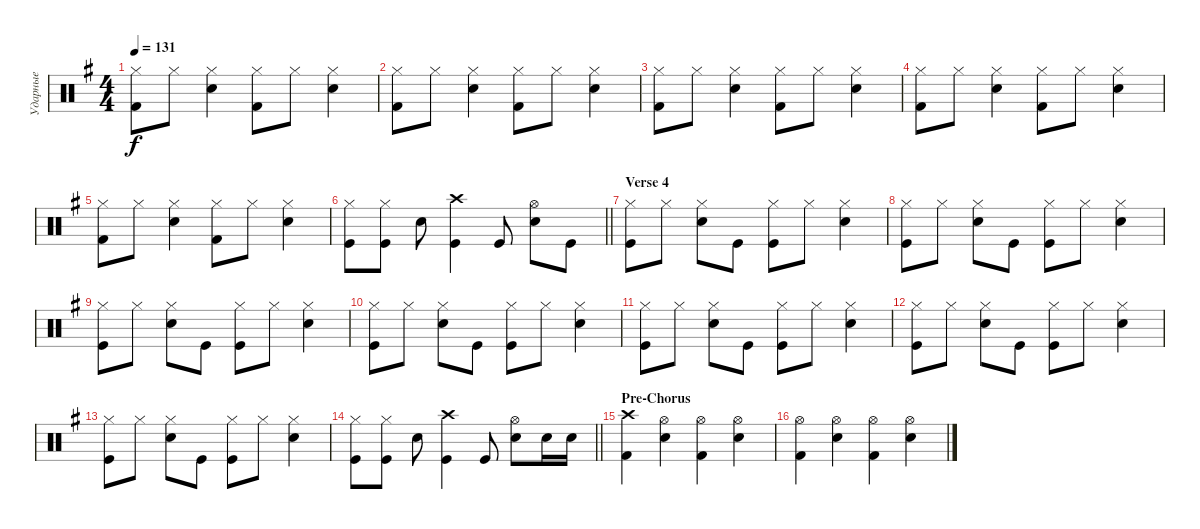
\track ("Ударные" "Ударные") {instrument percussion}
\staff {score}
\articulation defaults
\ts (4 4)
\tempo 131
\clef neutral
\ks eminor
("Hi-Hat (closed)" "Kick (hit) 2").8{dy f} "Hi-Hat (closed)".8 ("Snare (hit) 2" "Hi-Hat (closed)").4 ("Hi-Hat (closed)" "Kick (hit) 2").8 "Hi-Hat (closed)".8 ("Snare (hit) 2" "Hi-Hat (closed)").4 |
("Hi-Hat (closed)" "Kick (hit) 2").8 "Hi-Hat (closed)".8 ("Hi-Hat (closed)" "Snare (hit) 2").4 ("Hi-Hat (closed)" "Kick (hit) 2").8 "Hi-Hat (closed)".8 ("Hi-Hat (closed)" "Snare (hit) 2").4 |
("Hi-Hat (closed)" "Kick (hit) 2").8 "Hi-Hat (closed)".8 ("Hi-Hat (closed)" "Snare (hit) 2").4 ("Hi-Hat (closed)" "Kick (hit) 2").8 "Hi-Hat (closed)".8 ("Snare (hit) 2" "Hi-Hat (closed)").4 |
("Hi-Hat (closed)" "Kick (hit) 2").8 "Hi-Hat (closed)".8 ("Hi-Hat (closed)" "Snare (hit) 2").4 ("Hi-Hat (closed)" "Kick (hit) 2").8 "Hi-Hat (closed)".8 ("Hi-Hat (closed)" "Snare (hit) 2").4 |
("Hi-Hat (closed)" "Kick (hit) 2").8 "Hi-Hat (closed)".8 ("Hi-Hat (closed)" "Snare (hit) 2").4 ("Hi-Hat (closed)" "Kick (hit) 2").8 "Hi-Hat (closed)".8 ("Hi-Hat (closed)" "Snare (hit) 2").4 |
\barLineRight lightlight
("Kick (hit)" "Hi-Hat (closed)").8 ("Kick (hit)" "Hi-Hat (closed)").8 "Snare (hit) 2".8 ("Crash high (hit)" "Kick (hit)").4 "Kick (hit)".8 ("Snare (hit) 2" "Hi-Hat (open)").8 "Kick (hit)".8 |
\section ("" "Verse 4")
("Hi-Hat (closed)" "Kick (hit)").8 "Hi-Hat (closed)".8 ("Hi-Hat (closed)" "Snare (hit) 2").8 "Kick (hit)".8 ("Hi-Hat (closed)" "Kick (hit)").8 "Hi-Hat (closed)".8 ("Hi-Hat (closed)" "Snare (hit) 2").4 |
("Hi-Hat (closed)" "Kick (hit)").8 "Hi-Hat (closed)".8 ("Hi-Hat (closed)" "Snare (hit) 2").8 "Kick (hit)".8 ("Hi-Hat (closed)" "Kick (hit)").8 "Hi-Hat (closed)".8 ("Snare (hit) 2" "Hi-Hat (closed)").4 |
("Hi-Hat (closed)" "Kick (hit)").8 "Hi-Hat (closed)".8 ("Hi-Hat (closed)" "Snare (hit) 2").8 "Kick (hit)".8 ("Hi-Hat (closed)" "Kick (hit)").8 "Hi-Hat (closed)".8 ("Hi-Hat (closed)" "Snare (hit) 2").4 |
("Hi-Hat (closed)" "Kick (hit)").8 "Hi-Hat (closed)".8 ("Hi-Hat (closed)" "Snare (hit) 2").8 "Kick (hit)".8 ("Hi-Hat (closed)" "Kick (hit)").8 "Hi-Hat (closed)".8 ("Hi-Hat (closed)" "Snare (hit) 2").4 |
("Hi-Hat (closed)" "Kick (hit)").8 "Hi-Hat (closed)".8 ("Hi-Hat (closed)" "Snare (hit) 2").8 "Kick (hit)".8 ("Hi-Hat (closed)" "Kick (hit)").8 "Hi-Hat (closed)".8 ("Hi-Hat (closed)" "Snare (hit) 2").4 |
("Hi-Hat (closed)" "Kick (hit)").8 "Hi-Hat (closed)".8 ("Hi-Hat (closed)" "Snare (hit) 2").8 "Kick (hit)".8 ("Hi-Hat (closed)" "Kick (hit)").8 "Hi-Hat (closed)".8 ("Hi-Hat (closed)" "Snare (hit) 2").4 |
("Hi-Hat (closed)" "Kick (hit)").8 "Hi-Hat (closed)".8 ("Hi-Hat (closed)" "Snare (hit) 2").8 "Kick (hit)".8 ("Hi-Hat (closed)" "Kick (hit)").8 "Hi-Hat (closed)".8 ("Hi-Hat (closed)" "Snare (hit) 2").4 |
\barLineRight lightlight
("Kick (hit)" "Hi-Hat (closed)").8 ("Kick (hit)" "Hi-Hat (closed)").8 "Snare (hit) 2".8 ("Crash high (hit)" "Kick (hit)").4 "Kick (hit)".8 ("Snare (hit) 2" "Hi-Hat (open)").8 "Snare (hit) 2".16 "Snare (hit) 2".16 |
\section ("" "Pre-Chorus")
("Crash high (hit)" "Kick (hit) 2").4 ("Hi-Hat (open)" "Snare (hit) 2").4 ("Hi-Hat (open)" "Kick (hit) 2").4 ("Hi-Hat (open)" "Snare (hit) 2").4 |
("Hi-Hat (open)" "Kick (hit) 2").4 ("Hi-Hat (open)" "Snare (hit) 2").4 ("Hi-Hat (open)" "Kick (hit) 2").4 ("Hi-Hat (open)" "Snare (hit) 2").4
